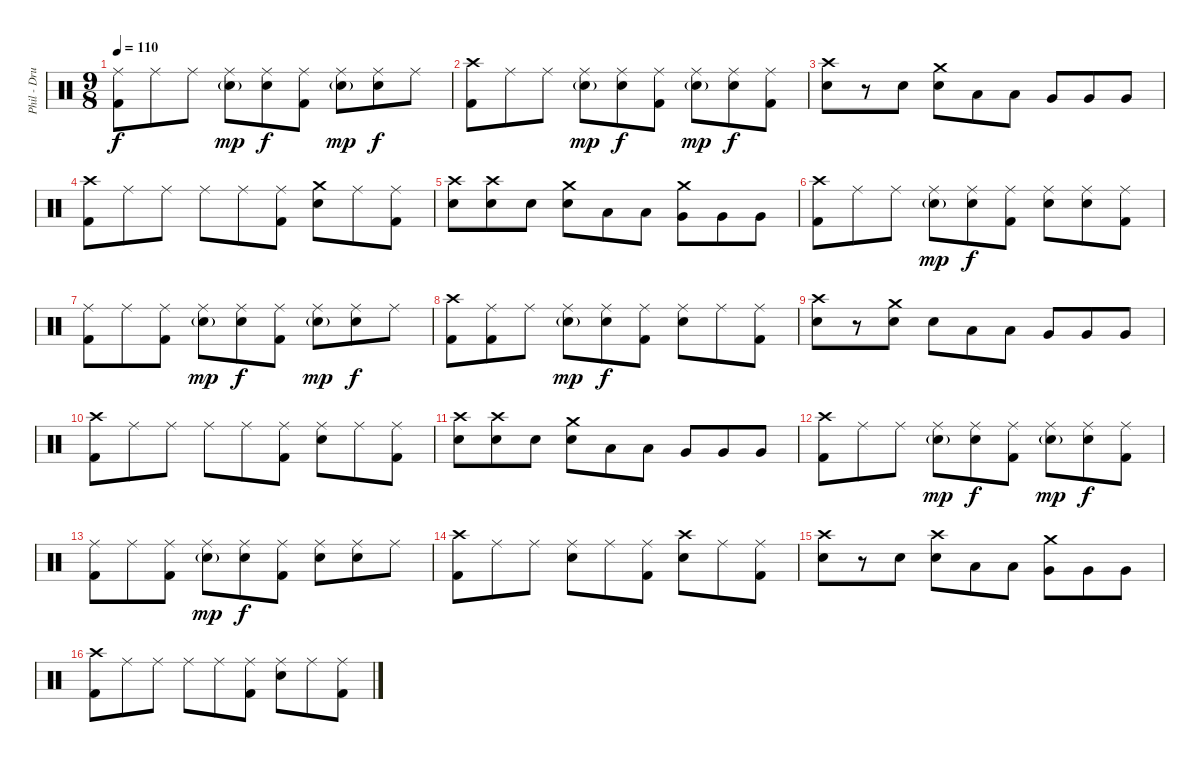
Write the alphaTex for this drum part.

\track ("Phil - Drums" "Phil - Dru") {instrument percussion}
\staff {score}
\articulation defaults
\ts (9 8)
\tempo 110
\clef neutral
\ks c
("Ride (middle)" "Kick (hit) 2").8{dy f} "Ride (middle)".8 "Ride (middle)".8 ("Ride (middle)" "Electric Snare (hit)"{g}).8{dy mp} ("Ride (middle)" "Electric Snare (hit)").8{dy f} ("Ride (middle)" "Kick (hit) 2").8 ("Ride (middle)" "Electric Snare (hit)"{g}).8{dy mp} ("Ride (middle)" "Electric Snare (hit)").8{dy f} "Ride (middle)".8 |
("Crash high (hit)" "Kick (hit) 2").8 "Ride (middle)".8 "Ride (middle)".8 ("Ride (middle)" "Electric Snare (hit)"{g}).8{dy mp} ("Ride (middle)" "Electric Snare (hit)").8{dy f} ("Ride (middle)" "Kick (hit) 2").8 ("Ride (middle)" "Electric Snare (hit)"{g}).8{dy mp} ("Ride (middle)" "Electric Snare (hit)").8{dy f} ("Ride (middle)" "Kick (hit) 2").8 |
("Crash high (hit)" "Snare (hit) 2").8 r.8 "Snare (hit) 2".8 ("Crash medium (hit)" "Electric Snare (hit)").8 "Low Tom (hit)".8 "Low Tom (hit)".8 "Very Low Tom (hit)".8 "Very Low Tom (hit)".8 "Very Low Tom (hit)".8 |
("Crash high (hit)" "Kick (hit) 2").8 "Ride (middle)".8 "Ride (middle)".8 "Ride (middle)".8 "Ride (middle)".8 ("Ride (middle)" "Kick (hit) 2").8 ("Crash medium (hit)" "Electric Snare (hit)").8 "Ride (middle)".8 ("Ride (middle)" "Kick (hit) 2").8 |
("Crash high (hit)" "Snare (hit) 2").8 ("Crash high (hit)" "Electric Snare (hit)").8 "Electric Snare (hit)".8 ("Crash medium (hit)" "Electric Snare (hit)").8 "Low Tom (hit)".8 "Low Tom (hit)".8 ("Crash medium (hit)" "Very Low Tom (hit)").8 "Very Low Tom (hit)".8 "Very Low Tom (hit)".8 |
("Crash high (hit)" "Kick (hit) 2").8 "Ride (middle)".8 "Ride (middle)".8 ("Ride (middle)" "Electric Snare (hit)"{g}).8{dy mp} ("Ride (middle)" "Electric Snare (hit)").8{dy f} ("Ride (middle)" "Kick (hit) 2").8 ("Ride (middle)" "Electric Snare (hit)").8 ("Ride (middle)" "Electric Snare (hit)").8 ("Ride (middle)" "Kick (hit) 2").8 |
("Ride (middle)" "Kick (hit) 2").8 "Ride (middle)".8 ("Ride (middle)" "Kick (hit) 2").8 ("Ride (middle)" "Electric Snare (hit)"{g}).8{dy mp} ("Ride (middle)" "Electric Snare (hit)").8{dy f} ("Ride (middle)" "Kick (hit) 2").8 ("Ride (middle)" "Electric Snare (hit)"{g}).8{dy mp} ("Ride (middle)" "Electric Snare (hit)").8{dy f} "Ride (middle)".8 |
("Crash high (hit)" "Kick (hit) 2").8 ("Ride (middle)" "Kick (hit) 2").8 "Ride (middle)".8 ("Ride (middle)" "Electric Snare (hit)"{g}).8{dy mp} ("Ride (middle)" "Electric Snare (hit)").8{dy f} ("Ride (middle)" "Kick (hit) 2").8 ("Ride (middle)" "Electric Snare (hit)").8 "Ride (middle)".8 ("Ride (middle)" "Kick (hit) 2").8 |
("Crash high (hit)" "Electric Snare (hit)").8 r.8 ("Crash medium (hit)" "Snare (hit) 2").8 "Electric Snare (hit)".8 "Low Tom (hit)".8 "Low Tom (hit)".8 "Very Low Tom (hit)".8 "Very Low Tom (hit)".8 "Very Low Tom (hit)".8 |
("Crash high (hit)" "Kick (hit) 2").8 "Ride (middle)".8 "Ride (middle)".8 "Ride (middle)".8 "Ride (middle)".8 ("Ride (middle)" "Kick (hit) 2").8 ("Ride (middle)" "Electric Snare (hit)").8 "Ride (middle)".8 ("Ride (middle)" "Kick (hit) 2").8 |
("Crash high (hit)" "Snare (hit) 2").8 ("Crash high (hit)" "Electric Snare (hit)").8 "Electric Snare (hit)".8 ("Crash medium (hit)" "Electric Snare (hit)").8 "Low Tom (hit)".8 "Low Tom (hit)".8 "Very Low Tom (hit)".8 "Very Low Tom (hit)".8 "Very Low Tom (hit)".8 |
("Crash high (hit)" "Kick (hit) 2").8 "Ride (middle)".8 "Ride (middle)".8 ("Ride (middle)" "Electric Snare (hit)"{g}).8{dy mp} ("Ride (middle)" "Electric Snare (hit)").8{dy f} ("Ride (middle)" "Kick (hit) 2").8 ("Ride (middle)" "Electric Snare (hit)"{g}).8{dy mp} ("Ride (middle)" "Electric Snare (hit)").8{dy f} ("Ride (middle)" "Kick (hit) 2").8 |
("Ride (middle)" "Kick (hit) 2").8 "Ride (middle)".8 ("Ride (middle)" "Kick (hit) 2").8 ("Ride (middle)" "Electric Snare (hit)"{g}).8{dy mp} ("Ride (middle)" "Electric Snare (hit)").8{dy f} ("Ride (middle)" "Kick (hit) 2").8 ("Ride (middle)" "Electric Snare (hit)").8 ("Ride (middle)" "Electric Snare (hit)").8 "Ride (middle)".8 |
("Crash high (hit)" "Kick (hit) 2").8 "Ride (middle)".8 "Ride (middle)".8 ("Ride (middle)" "Electric Snare (hit)").8 "Ride (middle)".8 ("Ride (middle)" "Kick (hit) 2").8 ("Crash high (hit)" "Electric Snare (hit)").8 "Ride (middle)".8 ("Ride (middle)" "Kick (hit) 2").8 |
("Crash high (hit)" "Electric Snare (hit)").8 r.8 "Snare (hit) 2".8 ("Crash high (hit)" "Electric Snare (hit)").8 "Low Tom (hit)".8 "Low Tom (hit)".8 ("Crash medium (hit)" "Very Low Tom (hit)").8 "Very Low Tom (hit)".8 "Very Low Tom (hit)".8 |
("Crash high (hit)" "Kick (hit) 2").8 "Ride (middle)".8 "Ride (middle)".8 "Ride (middle)".8 "Ride (middle)".8 ("Ride (middle)" "Kick (hit) 2").8 ("Ride (middle)" "Electric Snare (hit)").8 "Ride (middle)".8 ("Ride (middle)" "Kick (hit) 2").8
